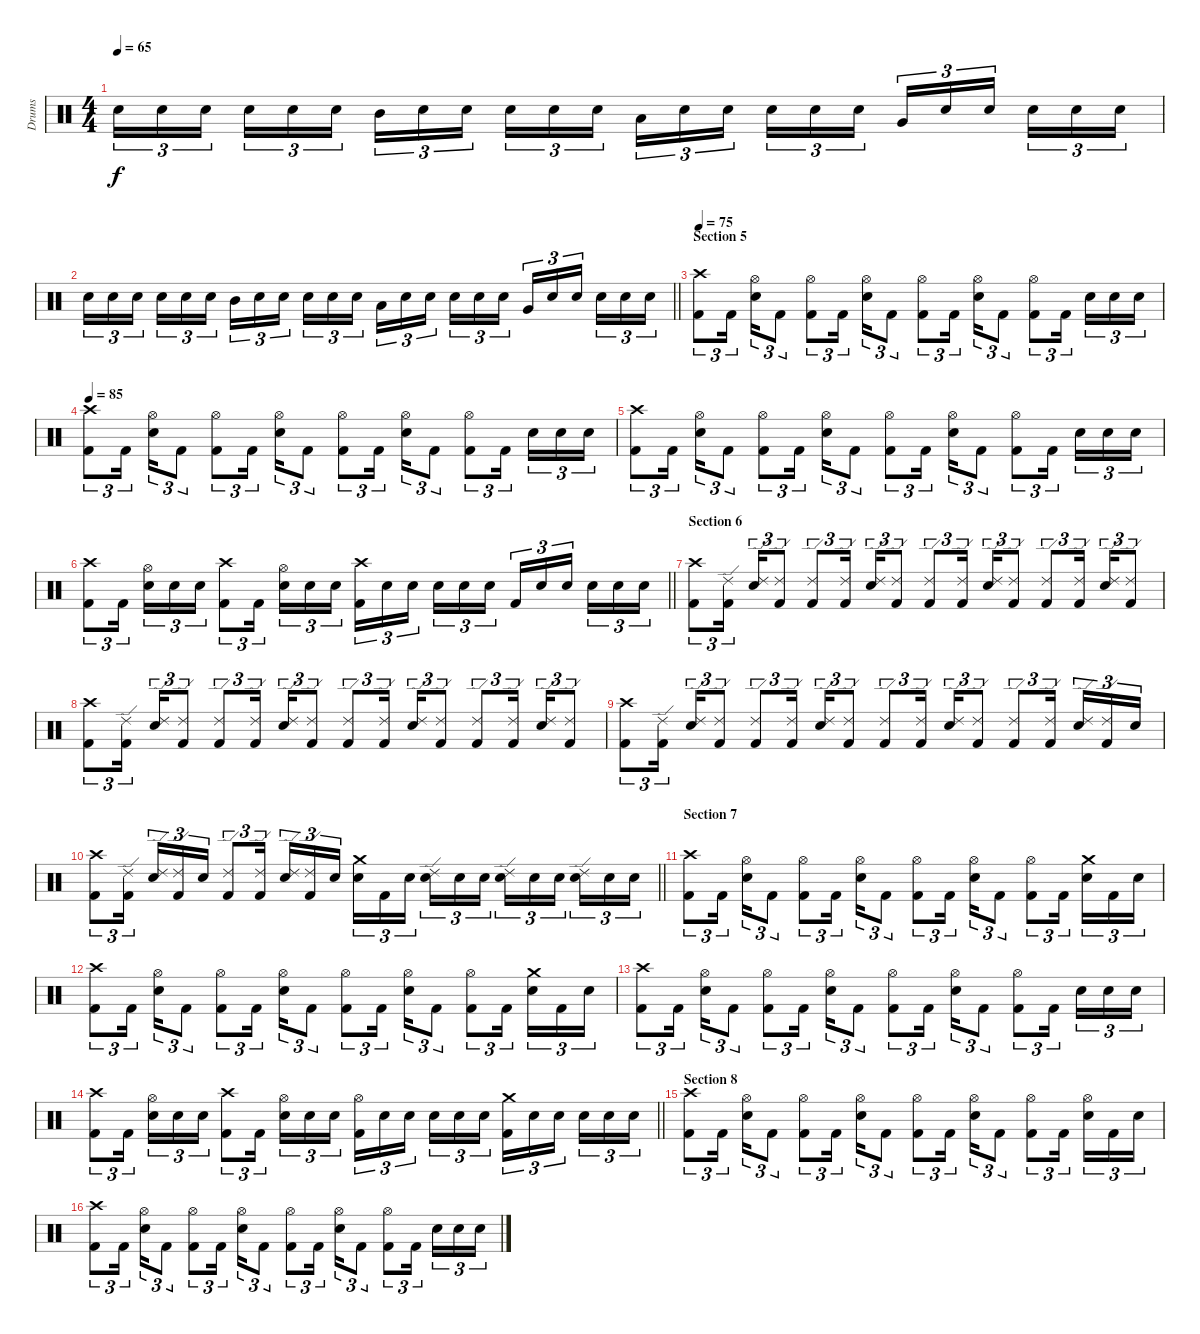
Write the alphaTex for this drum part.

\track ("Drums" "Drums") {instrument percussion}
\staff {score}
\articulation defaults
\ts (4 4)
\tempo 65
\clef neutral
\ks c "Electric Snare (hit)".16{tu (3 2) dy f} "Electric Snare (hit)".16{tu (3 2)} "Electric Snare (hit)".16{tu (3 2)} "Electric Snare (hit)".16{tu (3 2)} "Electric Snare (hit)".16{tu (3 2)} "Electric Snare (hit)".16{tu (3 2)} "Mid Tom (hit)".16{tu (3 2)} "Electric Snare (hit)".16{tu (3 2)} "Electric Snare (hit)".16{tu (3 2)} "Electric Snare (hit)".16{tu (3 2)} "Electric Snare (hit)".16{tu (3 2)} "Electric Snare (hit)".16{tu (3 2)} "Low Tom (hit)".16{tu (3 2)} "Electric Snare (hit)".16{tu (3 2)} "Electric Snare (hit)".16{tu (3 2)} "Electric Snare (hit)".16{tu (3 2)} "Electric Snare (hit)".16{tu (3 2)} "Electric Snare (hit)".16{tu (3 2)} "Very Low Tom (hit)".16{tu (3 2)} "Electric Snare (hit)".16{tu (3 2)} "Electric Snare (hit)".16{tu (3 2)} "Electric Snare (hit)".16{tu (3 2)} "Electric Snare (hit)".16{tu (3 2)} "Electric Snare (hit)".16{tu (3 2)}
|
\barLineRight lightlight "Electric Snare (hit)".16{tu (3 2)} "Electric Snare (hit)".16{tu (3 2)} "Electric Snare (hit)".16{tu (3 2)} "Electric Snare (hit)".16{tu (3 2)} "Electric Snare (hit)".16{tu (3 2)} "Electric Snare (hit)".16{tu (3 2)} "Mid Tom (hit)".16{tu (3 2)} "Electric Snare (hit)".16{tu (3 2)} "Electric Snare (hit)".16{tu (3 2)} "Electric Snare (hit)".16{tu (3 2)} "Electric Snare (hit)".16{tu (3 2)} "Electric Snare (hit)".16{tu (3 2)} "Low Tom (hit)".16{tu (3 2)} "Electric Snare (hit)".16{tu (3 2)} "Electric Snare (hit)".16{tu (3 2)} "Electric Snare (hit)".16{tu (3 2)} "Electric Snare (hit)".16{tu (3 2)} "Electric Snare (hit)".16{tu (3 2)} "Very Low Tom (hit)".16{tu (3 2)} "Electric Snare (hit)".16{tu (3 2)} "Electric Snare (hit)".16{tu (3 2)} "Electric Snare (hit)".16{tu (3 2)} "Electric Snare (hit)".16{tu (3 2)} "Electric Snare (hit)".16{tu (3 2)}
|
\section ("" "Section 5")
\tempo 75
("Crash high (hit)" "Kick (hit) 2").8{tu (3 2)} "Kick (hit) 2".16{tu (3 2)} ("Hi-Hat (open)" "Electric Snare (hit)").16{tu (3 2)} "Kick (hit) 2".8{tu (3 2)} ("Hi-Hat (open)" "Kick (hit) 2").8{tu (3 2)} "Kick (hit) 2".16{tu (3 2)} ("Hi-Hat (open)" "Electric Snare (hit)").16{tu (3 2)} "Kick (hit) 2".8{tu (3 2)} ("Hi-Hat (open)" "Kick (hit) 2").8{tu (3 2)} "Kick (hit) 2".16{tu (3 2)} ("Hi-Hat (open)" "Electric Snare (hit)").16{tu (3 2)} "Kick (hit) 2".8{tu (3 2)} ("Hi-Hat (open)" "Kick (hit) 2").8{tu (3 2)} "Kick (hit) 2".16{tu (3 2)} "Electric Snare (hit)".16{tu (3 2)} "Electric Snare (hit)".16{tu (3 2)} "Electric Snare (hit)".16{tu (3 2)} |
\tempo 85
("Crash high (hit)" "Kick (hit) 2").8{tu (3 2)} "Kick (hit) 2".16{tu (3 2)} ("Hi-Hat (open)" "Electric Snare (hit)").16{tu (3 2)} "Kick (hit) 2".8{tu (3 2)} ("Hi-Hat (open)" "Kick (hit) 2").8{tu (3 2)} "Kick (hit) 2".16{tu (3 2)} ("Hi-Hat (open)" "Electric Snare (hit)").16{tu (3 2)} "Kick (hit) 2".8{tu (3 2)} ("Hi-Hat (open)" "Kick (hit) 2").8{tu (3 2)} "Kick (hit) 2".16{tu (3 2)} ("Hi-Hat (open)" "Electric Snare (hit)").16{tu (3 2)} "Kick (hit) 2".8{tu (3 2)} ("Hi-Hat (open)" "Kick (hit) 2").8{tu (3 2)} "Kick (hit) 2".16{tu (3 2)} "Electric Snare (hit)".16{tu (3 2)} "Electric Snare (hit)".16{tu (3 2)} "Electric Snare (hit)".16{tu (3 2)} |
("Crash high (hit)" "Kick (hit) 2").8{tu (3 2)} "Kick (hit) 2".16{tu (3 2)} ("Hi-Hat (open)" "Electric Snare (hit)").16{tu (3 2)} "Kick (hit) 2".8{tu (3 2)} ("Hi-Hat (open)" "Kick (hit) 2").8{tu (3 2)} "Kick (hit) 2".16{tu (3 2)} ("Hi-Hat (open)" "Electric Snare (hit)").16{tu (3 2)} "Kick (hit) 2".8{tu (3 2)} ("Hi-Hat (open)" "Kick (hit) 2").8{tu (3 2)} "Kick (hit) 2".16{tu (3 2)} ("Hi-Hat (open)" "Electric Snare (hit)").16{tu (3 2)} "Kick (hit) 2".8{tu (3 2)} ("Hi-Hat (open)" "Kick (hit) 2").8{tu (3 2)} "Kick (hit) 2".16{tu (3 2)} "Electric Snare (hit)".16{tu (3 2)} "Electric Snare (hit)".16{tu (3 2)} "Electric Snare (hit)".16{tu (3 2)} |
\barLineRight lightlight
("Crash high (hit)" "Kick (hit) 2").8{tu (3 2)} "Kick (hit) 2".16{tu (3 2)} ("Hi-Hat (open)" "Electric Snare (hit)").16{tu (3 2)} "Electric Snare (hit)".16{tu (3 2)} "Electric Snare (hit)".16{tu (3 2)} ("Crash high (hit)" "Kick (hit) 2").8{tu (3 2)} "Kick (hit) 2".16{tu (3 2)} ("Hi-Hat (open)" "Electric Snare (hit)").16{tu (3 2)} "Electric Snare (hit)".16{tu (3 2)} "Electric Snare (hit)".16{tu (3 2)} ("Crash high (hit)" "Kick (hit) 2").16{tu (3 2)} "Electric Snare (hit)".16{tu (3 2)} "Electric Snare (hit)".16{tu (3 2)} "Electric Snare (hit)".16{tu (3 2)} "Electric Snare (hit)".16{tu (3 2)} "Electric Snare (hit)".16{tu (3 2)} "Kick (hit) 2".16{tu (3 2)} "Electric Snare (hit)".16{tu (3 2)} "Electric Snare (hit)".16{tu (3 2)} "Electric Snare (hit)".16{tu (3 2)} "Electric Snare (hit)".16{tu (3 2)} "Electric Snare (hit)".16{tu (3 2)} |
\section ("" "Section 6")
("Crash high (hit)" "Kick (hit) 2").8{tu (3 2)} ("Ride (edge) 2" "Kick (hit) 2").16{tu (3 2)} ("Ride (edge) 2" "Electric Snare (hit)").16{tu (3 2)} ("Ride (edge) 2" "Kick (hit) 2").8{tu (3 2)} ("Ride (edge) 2" "Kick (hit) 2").8{tu (3 2)} ("Ride (edge) 2" "Kick (hit) 2").16{tu (3 2)} ("Ride (edge) 2" "Electric Snare (hit)").16{tu (3 2)} ("Ride (edge) 2" "Kick (hit) 2").8{tu (3 2)} ("Ride (edge) 2" "Kick (hit) 2").8{tu (3 2)} ("Ride (edge) 2" "Kick (hit) 2").16{tu (3 2)} ("Ride (edge) 2" "Electric Snare (hit)").16{tu (3 2)} ("Ride (edge) 2" "Kick (hit) 2").8{tu (3 2)} ("Ride (edge) 2" "Kick (hit) 2").8{tu (3 2)} ("Ride (edge) 2" "Kick (hit) 2").16{tu (3 2)} ("Ride (edge) 2" "Electric Snare (hit)").16{tu (3 2)} ("Ride (edge) 2" "Kick (hit) 2").8{tu (3 2)} |
("Crash high (hit)" "Kick (hit) 2").8{tu (3 2)} ("Ride (edge) 2" "Kick (hit) 2").16{tu (3 2)} ("Ride (edge) 2" "Electric Snare (hit)").16{tu (3 2)} ("Ride (edge) 2" "Kick (hit) 2").8{tu (3 2)} ("Ride (edge) 2" "Kick (hit) 2").8{tu (3 2)} ("Ride (edge) 2" "Kick (hit) 2").16{tu (3 2)} ("Ride (edge) 2" "Electric Snare (hit)").16{tu (3 2)} ("Ride (edge) 2" "Kick (hit) 2").8{tu (3 2)} ("Ride (edge) 2" "Kick (hit) 2").8{tu (3 2)} ("Ride (edge) 2" "Kick (hit) 2").16{tu (3 2)} ("Ride (edge) 2" "Electric Snare (hit)").16{tu (3 2)} ("Ride (edge) 2" "Kick (hit) 2").8{tu (3 2)} ("Ride (edge) 2" "Kick (hit) 2").8{tu (3 2)} ("Ride (edge) 2" "Kick (hit) 2").16{tu (3 2)} ("Ride (edge) 2" "Electric Snare (hit)").16{tu (3 2)} ("Ride (edge) 2" "Kick (hit) 2").8{tu (3 2)} |
("Crash high (hit)" "Kick (hit) 2").8{tu (3 2)} ("Ride (edge) 2" "Kick (hit) 2").16{tu (3 2)} ("Ride (edge) 2" "Electric Snare (hit)").16{tu (3 2)} ("Ride (edge) 2" "Kick (hit) 2").8{tu (3 2)} ("Ride (edge) 2" "Kick (hit) 2").8{tu (3 2)} ("Ride (edge) 2" "Kick (hit) 2").16{tu (3 2)} ("Ride (edge) 2" "Electric Snare (hit)").16{tu (3 2)} ("Ride (edge) 2" "Kick (hit) 2").8{tu (3 2)} ("Ride (edge) 2" "Kick (hit) 2").8{tu (3 2)} ("Ride (edge) 2" "Kick (hit) 2").16{tu (3 2)} ("Ride (edge) 2" "Electric Snare (hit)").16{tu (3 2)} ("Ride (edge) 2" "Kick (hit) 2").8{tu (3 2)} ("Ride (edge) 2" "Kick (hit) 2").8{tu (3 2)} ("Ride (edge) 2" "Kick (hit) 2").16{tu (3 2)} ("Ride (edge) 2" "Electric Snare (hit)").16{tu (3 2)} ("Ride (edge) 2" "Kick (hit) 2").16{tu (3 2)} "Electric Snare (hit)".16{tu (3 2)} |
\barLineRight lightlight
("Crash high (hit)" "Kick (hit) 2").8{tu (3 2)} ("Ride (edge) 2" "Kick (hit) 2").16{tu (3 2)} ("Ride (edge) 2" "Electric Snare (hit)").16{tu (3 2)} ("Ride (edge) 2" "Kick (hit) 2").16{tu (3 2)} "Electric Snare (hit)".16{tu (3 2)} ("Ride (edge) 2" "Kick (hit) 2").8{tu (3 2)} ("Ride (edge) 2" "Kick (hit) 2").16{tu (3 2)} ("Ride (edge) 2" "Electric Snare (hit)").16{tu (3 2)} ("Ride (edge) 2" "Kick (hit) 2").16{tu (3 2)} "Electric Snare (hit)".16{tu (3 2)} ("Crash medium (hit)" "Electric Snare (hit)").16{tu (3 2)} "Kick (hit) 2".16{tu (3 2)} "Electric Snare (hit)".16{tu (3 2)} ("Ride (edge) 2" "Electric Snare (hit)").16{tu (3 2)} "Electric Snare (hit)".16{tu (3 2)} "Electric Snare (hit)".16{tu (3 2)} ("Ride (edge) 2" "Electric Snare (hit)").16{tu (3 2)} "Electric Snare (hit)".16{tu (3 2)} "Electric Snare (hit)".16{tu (3 2)} ("Ride (edge) 2" "Electric Snare (hit)").16{tu (3 2)} "Electric Snare (hit)".16{tu (3 2)} "Electric Snare (hit)".16{tu (3 2)} |
\section ("" "Section 7")
("Crash high (hit)" "Kick (hit) 2").8{tu (3 2)} "Kick (hit) 2".16{tu (3 2)} ("Hi-Hat (open)" "Electric Snare (hit)").16{tu (3 2)} "Kick (hit) 2".8{tu (3 2)} ("Hi-Hat (open)" "Kick (hit) 2").8{tu (3 2)} "Kick (hit) 2".16{tu (3 2)} ("Hi-Hat (open)" "Electric Snare (hit)").16{tu (3 2)} "Kick (hit) 2".8{tu (3 2)} ("Hi-Hat (open)" "Kick (hit) 2").8{tu (3 2)} "Kick (hit) 2".16{tu (3 2)} ("Hi-Hat (open)" "Electric Snare (hit)").16{tu (3 2)} "Kick (hit) 2".8{tu (3 2)} ("Hi-Hat (open)" "Kick (hit) 2").8{tu (3 2)} "Kick (hit) 2".16{tu (3 2)} ("Crash medium (hit)" "Electric Snare (hit)").16{tu (3 2)} "Kick (hit) 2".16{tu (3 2)} "Electric Snare (hit)".16{tu (3 2)} |
("Crash high (hit)" "Kick (hit) 2").8{tu (3 2)} "Kick (hit) 2".16{tu (3 2)} ("Hi-Hat (open)" "Electric Snare (hit)").16{tu (3 2)} "Kick (hit) 2".8{tu (3 2)} ("Hi-Hat (open)" "Kick (hit) 2").8{tu (3 2)} "Kick (hit) 2".16{tu (3 2)} ("Hi-Hat (open)" "Electric Snare (hit)").16{tu (3 2)} "Kick (hit) 2".8{tu (3 2)} ("Hi-Hat (open)" "Kick (hit) 2").8{tu (3 2)} "Kick (hit) 2".16{tu (3 2)} ("Hi-Hat (open)" "Electric Snare (hit)").16{tu (3 2)} "Kick (hit) 2".8{tu (3 2)} ("Hi-Hat (open)" "Kick (hit) 2").8{tu (3 2)} "Kick (hit) 2".16{tu (3 2)} ("Crash medium (hit)" "Electric Snare (hit)").16{tu (3 2)} "Kick (hit) 2".16{tu (3 2)} "Electric Snare (hit)".16{tu (3 2)} |
("Crash high (hit)" "Kick (hit) 2").8{tu (3 2)} "Kick (hit) 2".16{tu (3 2)} ("Hi-Hat (open)" "Electric Snare (hit)").16{tu (3 2)} "Kick (hit) 2".8{tu (3 2)} ("Hi-Hat (open)" "Kick (hit) 2").8{tu (3 2)} "Kick (hit) 2".16{tu (3 2)} ("Hi-Hat (open)" "Electric Snare (hit)").16{tu (3 2)} "Kick (hit) 2".8{tu (3 2)} ("Hi-Hat (open)" "Kick (hit) 2").8{tu (3 2)} "Kick (hit) 2".16{tu (3 2)} ("Hi-Hat (open)" "Electric Snare (hit)").16{tu (3 2)} "Kick (hit) 2".8{tu (3 2)} ("Hi-Hat (open)" "Kick (hit) 2").8{tu (3 2)} "Kick (hit) 2".16{tu (3 2)} "Electric Snare (hit)".16{tu (3 2)} "Electric Snare (hit)".16{tu (3 2)} "Electric Snare (hit)".16{tu (3 2)} |
\barLineRight lightlight
("Crash high (hit)" "Kick (hit) 2").8{tu (3 2)} "Kick (hit) 2".16{tu (3 2)} ("Hi-Hat (open)" "Electric Snare (hit)").16{tu (3 2)} "Electric Snare (hit)".16{tu (3 2)} "Electric Snare (hit)".16{tu (3 2)} ("Crash high (hit)" "Kick (hit) 2").8{tu (3 2)} "Kick (hit) 2".16{tu (3 2)} ("Hi-Hat (open)" "Electric Snare (hit)").16{tu (3 2)} "Electric Snare (hit)".16{tu (3 2)} "Electric Snare (hit)".16{tu (3 2)} ("Hi-Hat (open)" "Kick (hit) 2").16{tu (3 2)} "Electric Snare (hit)".16{tu (3 2)} "Electric Snare (hit)".16{tu (3 2)} "Electric Snare (hit)".16{tu (3 2)} "Electric Snare (hit)".16{tu (3 2)} "Electric Snare (hit)".16{tu (3 2)} ("Crash medium (hit)" "Kick (hit) 2").16{tu (3 2)} "Electric Snare (hit)".16{tu (3 2)} "Electric Snare (hit)".16{tu (3 2)} "Electric Snare (hit)".16{tu (3 2)} "Electric Snare (hit)".16{tu (3 2)} "Electric Snare (hit)".16{tu (3 2)} |
\section ("" "Section 8")
("Crash high (hit)" "Kick (hit) 2").8{tu (3 2)} "Kick (hit) 2".16{tu (3 2)} ("Hi-Hat (open)" "Electric Snare (hit)").16{tu (3 2)} "Kick (hit) 2".8{tu (3 2)} ("Hi-Hat (open)" "Kick (hit) 2").8{tu (3 2)} "Kick (hit) 2".16{tu (3 2)} ("Hi-Hat (open)" "Electric Snare (hit)").16{tu (3 2)} "Kick (hit) 2".8{tu (3 2)} ("Hi-Hat (open)" "Kick (hit) 2").8{tu (3 2)} "Kick (hit) 2".16{tu (3 2)} ("Hi-Hat (open)" "Electric Snare (hit)").16{tu (3 2)} "Kick (hit) 2".8{tu (3 2)} ("Hi-Hat (open)" "Kick (hit) 2").8{tu (3 2)} "Kick (hit) 2".16{tu (3 2)} ("Hi-Hat (open)" "Electric Snare (hit)").16{tu (3 2)} "Kick (hit) 2".16{tu (3 2)} "Electric Snare (hit)".16{tu (3 2)} |
("Crash high (hit)" "Kick (hit) 2").8{tu (3 2)} "Kick (hit) 2".16{tu (3 2)} ("Hi-Hat (open)" "Electric Snare (hit)").16{tu (3 2)} "Kick (hit) 2".8{tu (3 2)} ("Hi-Hat (open)" "Kick (hit) 2").8{tu (3 2)} "Kick (hit) 2".16{tu (3 2)} ("Hi-Hat (open)" "Electric Snare (hit)").16{tu (3 2)} "Kick (hit) 2".8{tu (3 2)} ("Hi-Hat (open)" "Kick (hit) 2").8{tu (3 2)} "Kick (hit) 2".16{tu (3 2)} ("Hi-Hat (open)" "Electric Snare (hit)").16{tu (3 2)} "Kick (hit) 2".8{tu (3 2)} ("Hi-Hat (open)" "Kick (hit) 2").8{tu (3 2)} "Kick (hit) 2".16{tu (3 2)} "Electric Snare (hit)".16{tu (3 2)} "Electric Snare (hit)".16{tu (3 2)} "Electric Snare (hit)".16{tu (3 2)}
